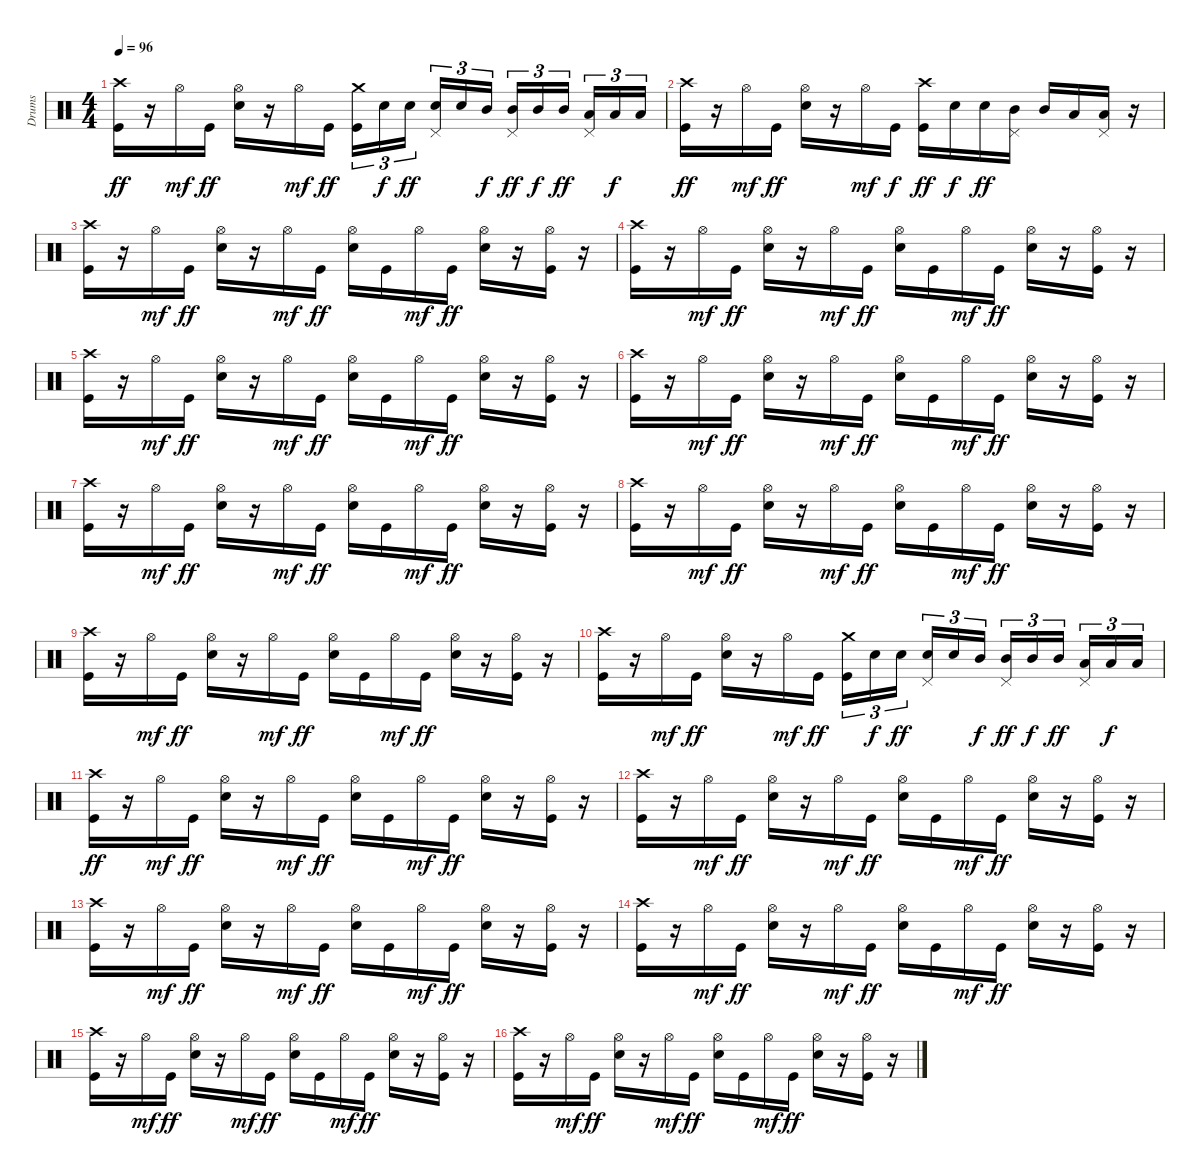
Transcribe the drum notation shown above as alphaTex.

\track ("Drums" "Drums") {instrument percussion}
\staff {score}
\articulation defaults
\ts (4 4)
\tempo 96
\clef neutral
\ks c
("Crash high (hit)" "Kick (hit)").16{dy ff} r.16 "Hi-Hat (open)".16{dy mf} "Kick (hit)".16{dy ff} ("Hi-Hat (open)" "Snare (hit) 2").16 r.16 "Hi-Hat (open)".16{dy mf} "Kick (hit)".16{dy ff} ("Crash medium (hit)" "Kick (hit)").16{tu (3 2)} "Snare (hit) 2".16{tu (3 2) dy f} "Snare (hit) 2".16{tu (3 2) dy ff} ("Pedal Hi-Hat (hit)" "Snare (hit) 2").16{tu (3 2)} "Snare (hit) 2".16{tu (3 2)} "Mid Tom (hit)".16{tu (3 2) dy f} ("Pedal Hi-Hat (hit)" "Mid Tom (hit)").16{tu (3 2) dy ff} "Mid Tom (hit)".16{tu (3 2) dy f} "Mid Tom (hit)".16{tu (3 2) dy ff} ("Pedal Hi-Hat (hit)" "Low Tom (hit)").16{tu (3 2)} "Low Tom (hit)".16{tu (3 2) dy f} "Low Tom (hit)".16{tu (3 2)} |
("Crash high (hit)" "Kick (hit)").16{dy ff} r.16 "Hi-Hat (open)".16{dy mf} "Kick (hit)".16{dy ff} ("Hi-Hat (open)" "Snare (hit) 2").16 r.16 "Hi-Hat (open)".16{dy mf} "Kick (hit)".16{dy f} ("Crash high (hit)" "Kick (hit)").16{dy ff} "Snare (hit) 2".16{dy f} "Snare (hit) 2".16{dy ff} ("Pedal Hi-Hat (hit)" "Mid Tom (hit)").16 "Mid Tom (hit)".16 "Low Tom (hit)".16 ("Pedal Hi-Hat (hit)" "Low Tom (hit)").16 r.16 |
("Crash high (hit)" "Kick (hit)").16 r.16 "Hi-Hat (open)".16{dy mf} "Kick (hit)".16{dy ff} ("Hi-Hat (open)" "Snare (hit) 2").16 r.16 "Hi-Hat (open)".16{dy mf} "Kick (hit)".16{dy ff} ("Hi-Hat (open)" "Snare (hit) 2").16 "Kick (hit)".16 "Hi-Hat (open)".16{dy mf} "Kick (hit)".16{dy ff} ("Hi-Hat (open)" "Snare (hit) 2").16 r.16 ("Hi-Hat (open)" "Kick (hit)").16 r.16 |
("Crash high (hit)" "Kick (hit)").16 r.16 "Hi-Hat (open)".16{dy mf} "Kick (hit)".16{dy ff} ("Hi-Hat (open)" "Snare (hit) 2").16 r.16 "Hi-Hat (open)".16{dy mf} "Kick (hit)".16{dy ff} ("Hi-Hat (open)" "Snare (hit) 2").16 "Kick (hit)".16 "Hi-Hat (open)".16{dy mf} "Kick (hit)".16{dy ff} ("Hi-Hat (open)" "Snare (hit) 2").16 r.16 ("Hi-Hat (open)" "Kick (hit)").16 r.16 |
("Crash high (hit)" "Kick (hit)").16 r.16 "Hi-Hat (open)".16{dy mf} "Kick (hit)".16{dy ff} ("Hi-Hat (open)" "Snare (hit) 2").16 r.16 "Hi-Hat (open)".16{dy mf} "Kick (hit)".16{dy ff} ("Hi-Hat (open)" "Snare (hit) 2").16 "Kick (hit)".16 "Hi-Hat (open)".16{dy mf} "Kick (hit)".16{dy ff} ("Hi-Hat (open)" "Snare (hit) 2").16 r.16 ("Hi-Hat (open)" "Kick (hit)").16 r.16 |
("Crash high (hit)" "Kick (hit)").16 r.16 "Hi-Hat (open)".16{dy mf} "Kick (hit)".16{dy ff} ("Hi-Hat (open)" "Snare (hit) 2").16 r.16 "Hi-Hat (open)".16{dy mf} "Kick (hit)".16{dy ff} ("Hi-Hat (open)" "Snare (hit) 2").16 "Kick (hit)".16 "Hi-Hat (open)".16{dy mf} "Kick (hit)".16{dy ff} ("Hi-Hat (open)" "Snare (hit) 2").16 r.16 ("Hi-Hat (open)" "Kick (hit)").16 r.16 |
("Crash high (hit)" "Kick (hit)").16 r.16 "Hi-Hat (open)".16{dy mf} "Kick (hit)".16{dy ff} ("Hi-Hat (open)" "Snare (hit) 2").16 r.16 "Hi-Hat (open)".16{dy mf} "Kick (hit)".16{dy ff} ("Hi-Hat (open)" "Snare (hit) 2").16 "Kick (hit)".16 "Hi-Hat (open)".16{dy mf} "Kick (hit)".16{dy ff} ("Hi-Hat (open)" "Snare (hit) 2").16 r.16 ("Hi-Hat (open)" "Kick (hit)").16 r.16 |
("Crash high (hit)" "Kick (hit)").16 r.16 "Hi-Hat (open)".16{dy mf} "Kick (hit)".16{dy ff} ("Hi-Hat (open)" "Snare (hit) 2").16 r.16 "Hi-Hat (open)".16{dy mf} "Kick (hit)".16{dy ff} ("Hi-Hat (open)" "Snare (hit) 2").16 "Kick (hit)".16 "Hi-Hat (open)".16{dy mf} "Kick (hit)".16{dy ff} ("Hi-Hat (open)" "Snare (hit) 2").16 r.16 ("Hi-Hat (open)" "Kick (hit)").16 r.16 |
("Crash high (hit)" "Kick (hit)").16 r.16 "Hi-Hat (open)".16{dy mf} "Kick (hit)".16{dy ff} ("Hi-Hat (open)" "Snare (hit) 2").16 r.16 "Hi-Hat (open)".16{dy mf} "Kick (hit)".16{dy ff} ("Hi-Hat (open)" "Snare (hit) 2").16 "Kick (hit)".16 "Hi-Hat (open)".16{dy mf} "Kick (hit)".16{dy ff} ("Hi-Hat (open)" "Snare (hit) 2").16 r.16 ("Hi-Hat (open)" "Kick (hit)").16 r.16 |
("Crash high (hit)" "Kick (hit)").16 r.16 "Hi-Hat (open)".16{dy mf} "Kick (hit)".16{dy ff} ("Hi-Hat (open)" "Snare (hit) 2").16 r.16 "Hi-Hat (open)".16{dy mf} "Kick (hit)".16{dy ff} ("Crash medium (hit)" "Kick (hit)").16{tu (3 2)} "Snare (hit) 2".16{tu (3 2) dy f} "Snare (hit) 2".16{tu (3 2) dy ff} ("Pedal Hi-Hat (hit)" "Snare (hit) 2").16{tu (3 2)} "Snare (hit) 2".16{tu (3 2)} "Mid Tom (hit)".16{tu (3 2) dy f} ("Pedal Hi-Hat (hit)" "Mid Tom (hit)").16{tu (3 2) dy ff} "Mid Tom (hit)".16{tu (3 2) dy f} "Mid Tom (hit)".16{tu (3 2) dy ff} ("Pedal Hi-Hat (hit)" "Low Tom (hit)").16{tu (3 2)} "Low Tom (hit)".16{tu (3 2) dy f} "Low Tom (hit)".16{tu (3 2)} |
("Crash high (hit)" "Kick (hit)").16{dy ff} r.16 "Hi-Hat (open)".16{dy mf} "Kick (hit)".16{dy ff} ("Hi-Hat (open)" "Snare (hit) 2").16 r.16 "Hi-Hat (open)".16{dy mf} "Kick (hit)".16{dy ff} ("Hi-Hat (open)" "Snare (hit) 2").16 "Kick (hit)".16 "Hi-Hat (open)".16{dy mf} "Kick (hit)".16{dy ff} ("Hi-Hat (open)" "Snare (hit) 2").16 r.16 ("Hi-Hat (open)" "Kick (hit)").16 r.16 |
("Crash high (hit)" "Kick (hit)").16 r.16 "Hi-Hat (open)".16{dy mf} "Kick (hit)".16{dy ff} ("Hi-Hat (open)" "Snare (hit) 2").16 r.16 "Hi-Hat (open)".16{dy mf} "Kick (hit)".16{dy ff} ("Hi-Hat (open)" "Snare (hit) 2").16 "Kick (hit)".16 "Hi-Hat (open)".16{dy mf} "Kick (hit)".16{dy ff} ("Hi-Hat (open)" "Snare (hit) 2").16 r.16 ("Hi-Hat (open)" "Kick (hit)").16 r.16 |
("Crash high (hit)" "Kick (hit)").16 r.16 "Hi-Hat (open)".16{dy mf} "Kick (hit)".16{dy ff} ("Hi-Hat (open)" "Snare (hit) 2").16 r.16 "Hi-Hat (open)".16{dy mf} "Kick (hit)".16{dy ff} ("Hi-Hat (open)" "Snare (hit) 2").16 "Kick (hit)".16 "Hi-Hat (open)".16{dy mf} "Kick (hit)".16{dy ff} ("Hi-Hat (open)" "Snare (hit) 2").16 r.16 ("Hi-Hat (open)" "Kick (hit)").16 r.16 |
("Crash high (hit)" "Kick (hit)").16 r.16 "Hi-Hat (open)".16{dy mf} "Kick (hit)".16{dy ff} ("Hi-Hat (open)" "Snare (hit) 2").16 r.16 "Hi-Hat (open)".16{dy mf} "Kick (hit)".16{dy ff} ("Hi-Hat (open)" "Snare (hit) 2").16 "Kick (hit)".16 "Hi-Hat (open)".16{dy mf} "Kick (hit)".16{dy ff} ("Hi-Hat (open)" "Snare (hit) 2").16 r.16 ("Hi-Hat (open)" "Kick (hit)").16 r.16 |
("Crash high (hit)" "Kick (hit)").16 r.16 "Hi-Hat (open)".16{dy mf} "Kick (hit)".16{dy ff} ("Hi-Hat (open)" "Snare (hit) 2").16 r.16 "Hi-Hat (open)".16{dy mf} "Kick (hit)".16{dy ff} ("Hi-Hat (open)" "Snare (hit) 2").16 "Kick (hit)".16 "Hi-Hat (open)".16{dy mf} "Kick (hit)".16{dy ff} ("Hi-Hat (open)" "Snare (hit) 2").16 r.16 ("Hi-Hat (open)" "Kick (hit)").16 r.16 |
("Crash high (hit)" "Kick (hit)").16 r.16 "Hi-Hat (open)".16{dy mf} "Kick (hit)".16{dy ff} ("Hi-Hat (open)" "Snare (hit) 2").16 r.16 "Hi-Hat (open)".16{dy mf} "Kick (hit)".16{dy ff} ("Hi-Hat (open)" "Snare (hit) 2").16 "Kick (hit)".16 "Hi-Hat (open)".16{dy mf} "Kick (hit)".16{dy ff} ("Hi-Hat (open)" "Snare (hit) 2").16 r.16 ("Hi-Hat (open)" "Kick (hit)").16 r.16
